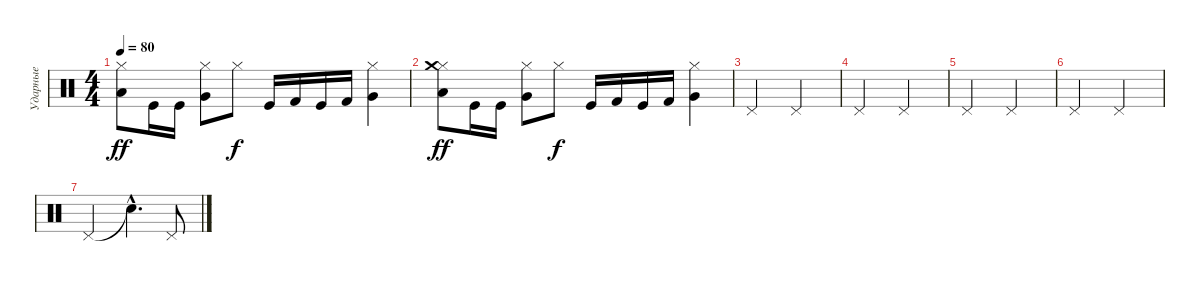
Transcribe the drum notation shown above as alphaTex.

\track ("Ударные" "Ударные") {instrument percussion}
\staff {score}
\articulation defaults
\ts (4 4)
\tempo 80
\clef neutral
\ks c
("Hi-Hat (closed)" "Low Tom (hit)").8{dy ff} "Kick (hit)".16 "Kick (hit)".16 ("Hi-Hat (closed)" "Very Low Tom (hit)").8 "Hi-Hat (closed)".8{dy f} "Kick (hit)".16 "Kick (hit) 2".16 "Kick (hit)".16 "Kick (hit) 2".16 ("Hi-Hat (closed)" "Very Low Tom (hit)").4 |
("Hi-Hat (closed)" "Crash medium (hit)" "Low Tom (hit)").8{dy ff} "Kick (hit)".16 "Kick (hit)".16 ("Hi-Hat (closed)" "Very Low Tom (hit)").8 "Hi-Hat (closed)".8{dy f} "Kick (hit)".16 "Kick (hit) 2".16 "Kick (hit)".16 "Kick (hit) 2".16 ("Hi-Hat (closed)" "Very Low Tom (hit)").4 |
"Pedal Hi-Hat (hit)".2 "Pedal Hi-Hat (hit)".2 |
"Pedal Hi-Hat (hit)".2 "Pedal Hi-Hat (hit)".2 |
"Pedal Hi-Hat (hit)".2 "Pedal Hi-Hat (hit)".2 |
"Pedal Hi-Hat (hit)".2 "Pedal Hi-Hat (hit)".2 |
"Pedal Hi-Hat (hit)".2 "Snare (hit)"{hac t}.4{d} "Pedal Hi-Hat (hit)".8
